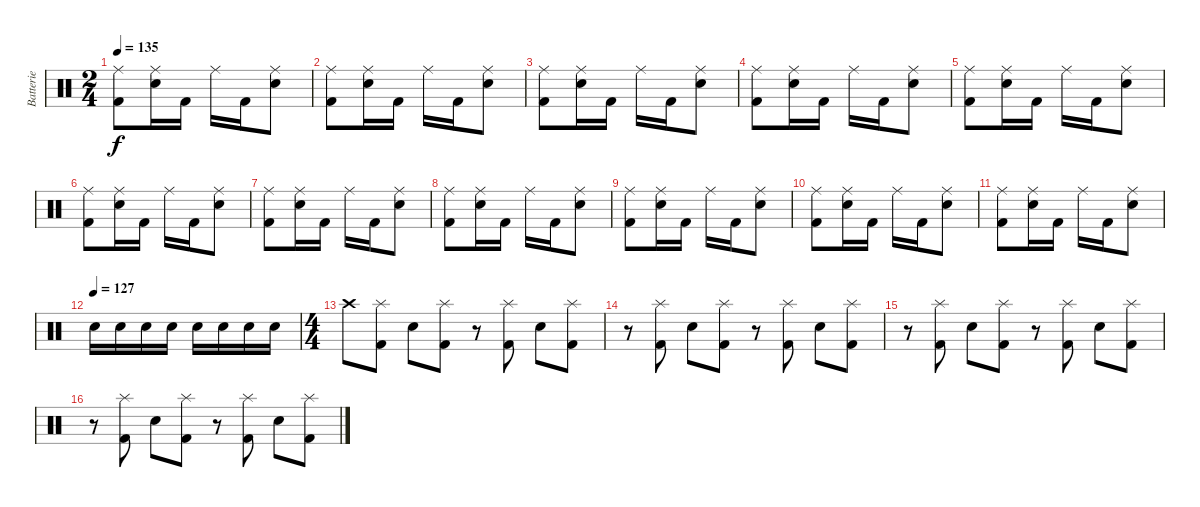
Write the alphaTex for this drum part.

\track ("Batterie" "Batterie") {instrument percussion}
\staff {score}
\articulation defaults
\ts (2 4)
\tempo 135
\clef neutral
\ks c
("Ride (middle)" "Kick (hit) 2").8{dy f} ("Ride (middle)" "Electric Snare (hit)").16 "Kick (hit) 2".16 "Ride (middle)".16 "Kick (hit) 2".16 ("Ride (middle)" "Electric Snare (hit)").8 |
("Ride (middle)" "Kick (hit) 2").8 ("Ride (middle)" "Electric Snare (hit)").16 "Kick (hit) 2".16 "Ride (middle)".16 "Kick (hit) 2".16 ("Ride (middle)" "Electric Snare (hit)").8 |
("Ride (middle)" "Kick (hit) 2").8 ("Ride (middle)" "Electric Snare (hit)").16 "Kick (hit) 2".16 "Ride (middle)".16 "Kick (hit) 2".16 ("Ride (middle)" "Electric Snare (hit)").8 |
("Ride (middle)" "Kick (hit) 2").8 ("Ride (middle)" "Electric Snare (hit)").16 "Kick (hit) 2".16 "Ride (middle)".16 "Kick (hit) 2".16 ("Ride (middle)" "Electric Snare (hit)").8 |
("Ride (middle)" "Kick (hit) 2").8 ("Ride (middle)" "Electric Snare (hit)").16 "Kick (hit) 2".16 "Ride (middle)".16 "Kick (hit) 2".16 ("Ride (middle)" "Electric Snare (hit)").8 |
("Ride (middle)" "Kick (hit) 2").8 ("Ride (middle)" "Electric Snare (hit)").16 "Kick (hit) 2".16 "Ride (middle)".16 "Kick (hit) 2".16 ("Ride (middle)" "Electric Snare (hit)").8 |
("Ride (middle)" "Kick (hit) 2").8 ("Ride (middle)" "Electric Snare (hit)").16 "Kick (hit) 2".16 "Ride (middle)".16 "Kick (hit) 2".16 ("Ride (middle)" "Electric Snare (hit)").8 |
("Ride (middle)" "Kick (hit) 2").8 ("Ride (middle)" "Electric Snare (hit)").16 "Kick (hit) 2".16 "Ride (middle)".16 "Kick (hit) 2".16 ("Ride (middle)" "Electric Snare (hit)").8 |
("Ride (middle)" "Kick (hit) 2").8 ("Ride (middle)" "Electric Snare (hit)").16 "Kick (hit) 2".16 "Ride (middle)".16 "Kick (hit) 2".16 ("Ride (middle)" "Electric Snare (hit)").8 |
("Ride (middle)" "Kick (hit) 2").8 ("Ride (middle)" "Electric Snare (hit)").16 "Kick (hit) 2".16 "Ride (middle)".16 "Kick (hit) 2".16 ("Ride (middle)" "Electric Snare (hit)").8 |
("Ride (middle)" "Kick (hit) 2").8 ("Ride (middle)" "Electric Snare (hit)").16 "Kick (hit) 2".16 "Ride (middle)".16 "Kick (hit) 2".16 ("Ride (middle)" "Electric Snare (hit)").8 |
\tempo (127)
"Snare (hit) 2".16 "Snare (hit) 2".16 "Snare (hit) 2".16 "Snare (hit) 2".16 "Snare (hit) 2".16 "Snare (hit) 2".16 "Snare (hit) 2".16 "Snare (hit) 2".16 |
\ts (4 4)
"Crash high (hit)".8 ("Splash (hit)" "Kick (hit) 2").8 "Snare (hit) 2".8 ("Splash (hit)" "Kick (hit) 2").8 r.8 ("Splash (hit)" "Kick (hit) 2").8 "Snare (hit) 2".8 ("Splash (hit)" "Kick (hit) 2").8 |
r.8 ("Splash (hit)" "Kick (hit) 2").8 "Snare (hit) 2".8 ("Splash (hit)" "Kick (hit) 2").8 r.8 ("Splash (hit)" "Kick (hit) 2").8 "Snare (hit) 2".8 ("Splash (hit)" "Kick (hit) 2").8 |
r.8 ("Splash (hit)" "Kick (hit) 2").8 "Snare (hit) 2".8 ("Splash (hit)" "Kick (hit) 2").8 r.8 ("Splash (hit)" "Kick (hit) 2").8 "Snare (hit) 2".8 ("Splash (hit)" "Kick (hit) 2").8 |
r.8 ("Splash (hit)" "Kick (hit) 2").8 "Snare (hit) 2".8 ("Splash (hit)" "Kick (hit) 2").8 r.8 ("Splash (hit)" "Kick (hit) 2").8 "Snare (hit) 2".8 ("Splash (hit)" "Kick (hit) 2").8
